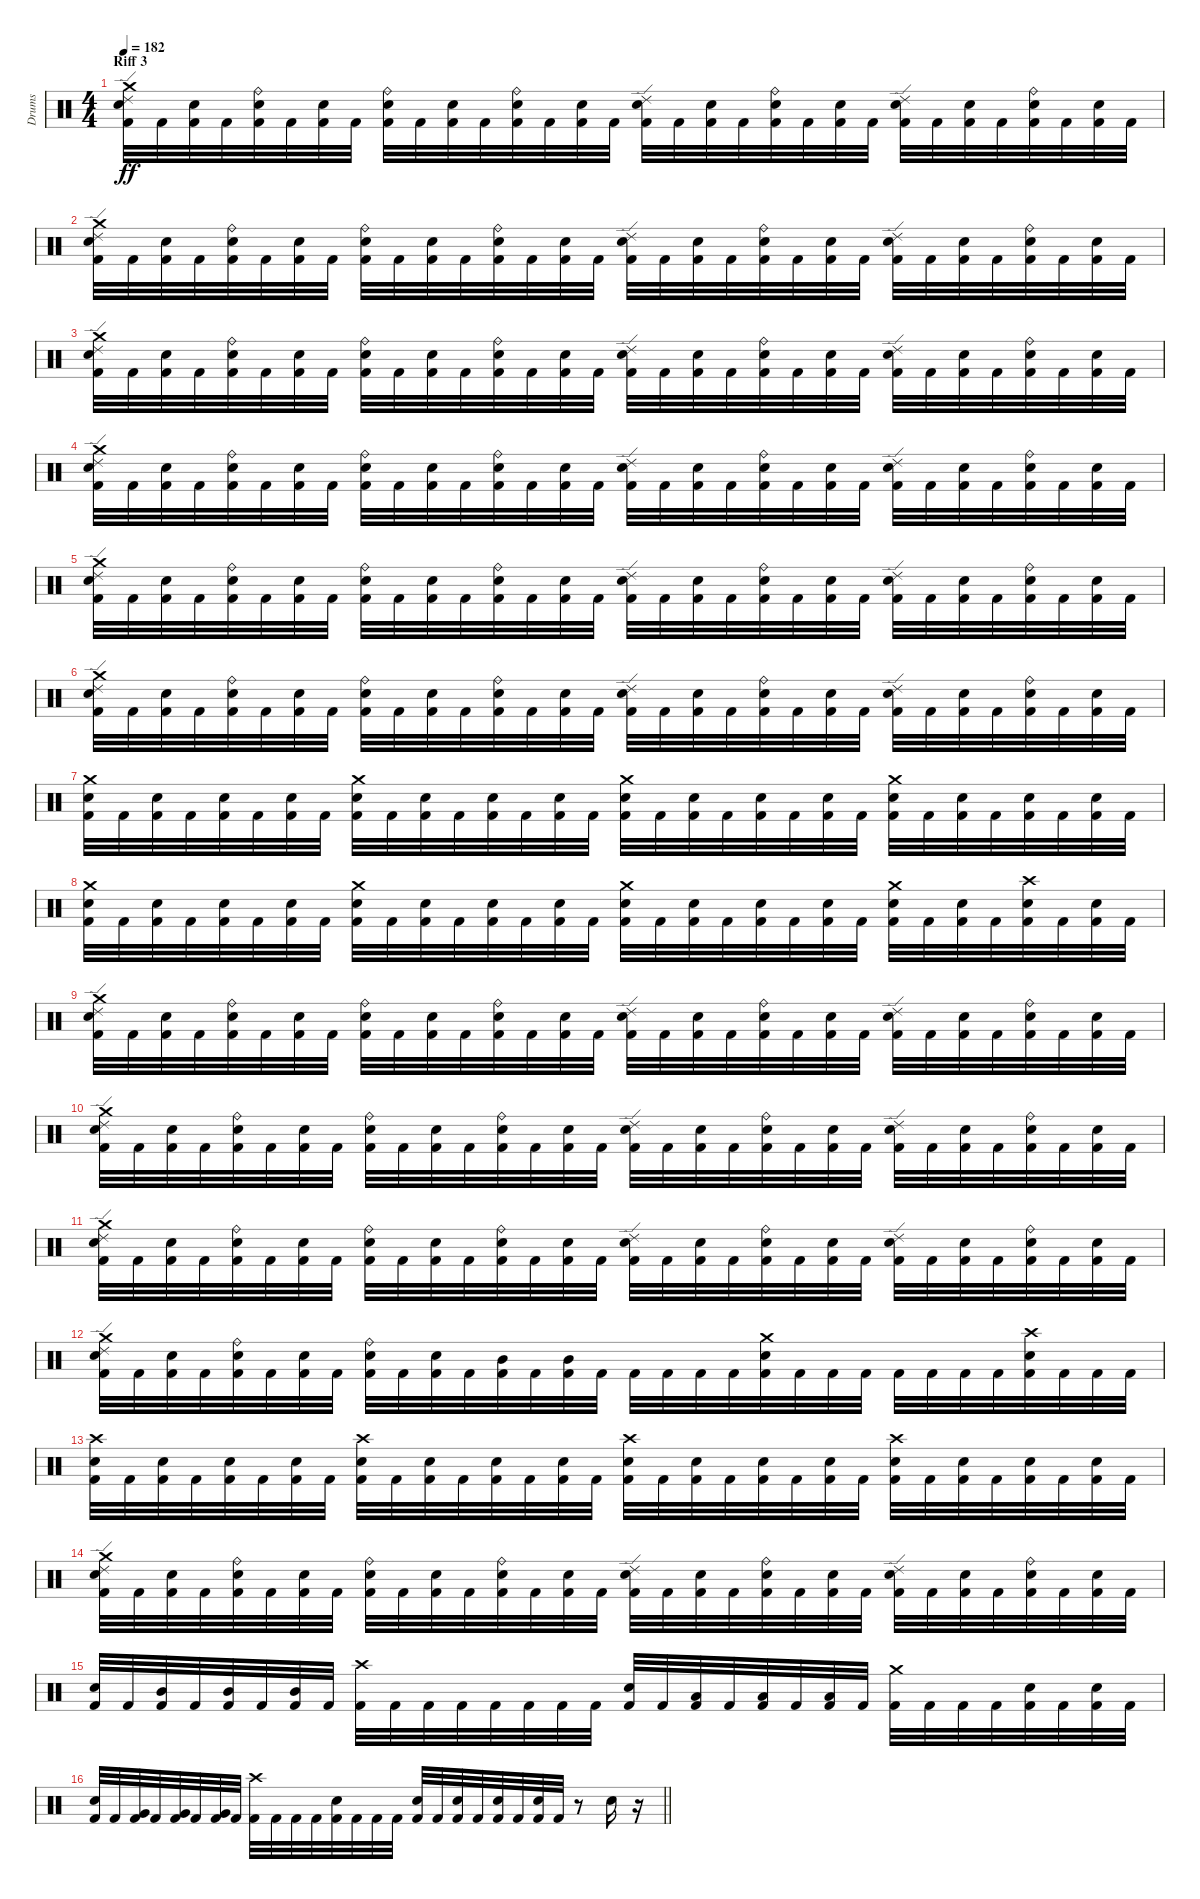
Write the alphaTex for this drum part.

\track ("Drums" "Drums") {instrument percussion}
\staff {score}
\articulation defaults
\ts (4 4)
\section ("" "Riff 3")
\tempo 182
\clef neutral
\ks c
("Kick (hit) 2" "Snare (hit) 2" "Ride (edge) 2" "Crash medium (hit)").32{dy ff} "Kick (hit) 2".32 ("Kick (hit) 2" "Snare (hit) 2").32 "Kick (hit) 2".32 ("Kick (hit) 2" "Snare (hit) 2" "Ride (bell)").32 "Kick (hit) 2".32 ("Kick (hit) 2" "Snare (hit) 2").32 "Kick (hit) 2".32 ("Kick (hit) 2" "Snare (hit) 2" "Ride (bell)").32 "Kick (hit) 2".32 ("Kick (hit) 2" "Snare (hit) 2").32 "Kick (hit) 2".32 ("Kick (hit) 2" "Snare (hit) 2" "Ride (bell)").32 "Kick (hit) 2".32 ("Kick (hit) 2" "Snare (hit) 2").32 "Kick (hit) 2".32 ("Kick (hit) 2" "Snare (hit) 2" "Ride (edge) 2").32 "Kick (hit) 2".32 ("Kick (hit) 2" "Snare (hit) 2").32 "Kick (hit) 2".32 ("Kick (hit) 2" "Snare (hit) 2" "Ride (bell)").32 "Kick (hit) 2".32 ("Kick (hit) 2" "Snare (hit) 2").32 "Kick (hit) 2".32 ("Kick (hit) 2" "Snare (hit) 2" "Ride (edge) 2").32 "Kick (hit) 2".32 ("Kick (hit) 2" "Snare (hit) 2").32 "Kick (hit) 2".32 ("Kick (hit) 2" "Snare (hit) 2" "Ride (bell)").32 "Kick (hit) 2".32 ("Kick (hit) 2" "Snare (hit) 2").32 "Kick (hit) 2".32 |
("Kick (hit) 2" "Snare (hit) 2" "Ride (edge) 2" "Crash medium (hit)").32 "Kick (hit) 2".32 ("Kick (hit) 2" "Snare (hit) 2").32 "Kick (hit) 2".32 ("Kick (hit) 2" "Snare (hit) 2" "Ride (bell)").32 "Kick (hit) 2".32 ("Kick (hit) 2" "Snare (hit) 2").32 "Kick (hit) 2".32 ("Kick (hit) 2" "Snare (hit) 2" "Ride (bell)").32 "Kick (hit) 2".32 ("Kick (hit) 2" "Snare (hit) 2").32 "Kick (hit) 2".32 ("Kick (hit) 2" "Snare (hit) 2" "Ride (bell)").32 "Kick (hit) 2".32 ("Kick (hit) 2" "Snare (hit) 2").32 "Kick (hit) 2".32 ("Kick (hit) 2" "Snare (hit) 2" "Ride (edge) 2").32 "Kick (hit) 2".32 ("Kick (hit) 2" "Snare (hit) 2").32 "Kick (hit) 2".32 ("Kick (hit) 2" "Snare (hit) 2" "Ride (bell)").32 "Kick (hit) 2".32 ("Kick (hit) 2" "Snare (hit) 2").32 "Kick (hit) 2".32 ("Kick (hit) 2" "Snare (hit) 2" "Ride (edge) 2").32 "Kick (hit) 2".32 ("Kick (hit) 2" "Snare (hit) 2").32 "Kick (hit) 2".32 ("Kick (hit) 2" "Snare (hit) 2" "Ride (bell)").32 "Kick (hit) 2".32 ("Kick (hit) 2" "Snare (hit) 2").32 "Kick (hit) 2".32 |
("Kick (hit) 2" "Snare (hit) 2" "Ride (edge) 2" "Crash medium (hit)").32 "Kick (hit) 2".32 ("Kick (hit) 2" "Snare (hit) 2").32 "Kick (hit) 2".32 ("Kick (hit) 2" "Snare (hit) 2" "Ride (bell)").32 "Kick (hit) 2".32 ("Kick (hit) 2" "Snare (hit) 2").32 "Kick (hit) 2".32 ("Kick (hit) 2" "Snare (hit) 2" "Ride (bell)").32 "Kick (hit) 2".32 ("Kick (hit) 2" "Snare (hit) 2").32 "Kick (hit) 2".32 ("Kick (hit) 2" "Snare (hit) 2" "Ride (bell)").32 "Kick (hit) 2".32 ("Kick (hit) 2" "Snare (hit) 2").32 "Kick (hit) 2".32 ("Kick (hit) 2" "Snare (hit) 2" "Ride (edge) 2").32 "Kick (hit) 2".32 ("Kick (hit) 2" "Snare (hit) 2").32 "Kick (hit) 2".32 ("Kick (hit) 2" "Snare (hit) 2" "Ride (bell)").32 "Kick (hit) 2".32 ("Kick (hit) 2" "Snare (hit) 2").32 "Kick (hit) 2".32 ("Kick (hit) 2" "Snare (hit) 2" "Ride (edge) 2").32 "Kick (hit) 2".32 ("Kick (hit) 2" "Snare (hit) 2").32 "Kick (hit) 2".32 ("Kick (hit) 2" "Snare (hit) 2" "Ride (bell)").32 "Kick (hit) 2".32 ("Kick (hit) 2" "Snare (hit) 2").32 "Kick (hit) 2".32 |
("Kick (hit) 2" "Snare (hit) 2" "Ride (edge) 2" "Crash medium (hit)").32 "Kick (hit) 2".32 ("Kick (hit) 2" "Snare (hit) 2").32 "Kick (hit) 2".32 ("Kick (hit) 2" "Snare (hit) 2" "Ride (bell)").32 "Kick (hit) 2".32 ("Kick (hit) 2" "Snare (hit) 2").32 "Kick (hit) 2".32 ("Kick (hit) 2" "Snare (hit) 2" "Ride (bell)").32 "Kick (hit) 2".32 ("Kick (hit) 2" "Snare (hit) 2").32 "Kick (hit) 2".32 ("Kick (hit) 2" "Snare (hit) 2" "Ride (bell)").32 "Kick (hit) 2".32 ("Kick (hit) 2" "Snare (hit) 2").32 "Kick (hit) 2".32 ("Kick (hit) 2" "Snare (hit) 2" "Ride (edge) 2").32 "Kick (hit) 2".32 ("Kick (hit) 2" "Snare (hit) 2").32 "Kick (hit) 2".32 ("Kick (hit) 2" "Snare (hit) 2" "Ride (bell)").32 "Kick (hit) 2".32 ("Kick (hit) 2" "Snare (hit) 2").32 "Kick (hit) 2".32 ("Kick (hit) 2" "Snare (hit) 2" "Ride (edge) 2").32 "Kick (hit) 2".32 ("Kick (hit) 2" "Snare (hit) 2").32 "Kick (hit) 2".32 ("Kick (hit) 2" "Snare (hit) 2" "Ride (bell)").32 "Kick (hit) 2".32 ("Kick (hit) 2" "Snare (hit) 2").32 "Kick (hit) 2".32 |
("Kick (hit) 2" "Snare (hit) 2" "Ride (edge) 2" "Crash medium (hit)").32 "Kick (hit) 2".32 ("Kick (hit) 2" "Snare (hit) 2").32 "Kick (hit) 2".32 ("Kick (hit) 2" "Snare (hit) 2" "Ride (bell)").32 "Kick (hit) 2".32 ("Kick (hit) 2" "Snare (hit) 2").32 "Kick (hit) 2".32 ("Kick (hit) 2" "Snare (hit) 2" "Ride (bell)").32 "Kick (hit) 2".32 ("Kick (hit) 2" "Snare (hit) 2").32 "Kick (hit) 2".32 ("Kick (hit) 2" "Snare (hit) 2" "Ride (bell)").32 "Kick (hit) 2".32 ("Kick (hit) 2" "Snare (hit) 2").32 "Kick (hit) 2".32 ("Kick (hit) 2" "Snare (hit) 2" "Ride (edge) 2").32 "Kick (hit) 2".32 ("Kick (hit) 2" "Snare (hit) 2").32 "Kick (hit) 2".32 ("Kick (hit) 2" "Snare (hit) 2" "Ride (bell)").32 "Kick (hit) 2".32 ("Kick (hit) 2" "Snare (hit) 2").32 "Kick (hit) 2".32 ("Kick (hit) 2" "Snare (hit) 2" "Ride (edge) 2").32 "Kick (hit) 2".32 ("Kick (hit) 2" "Snare (hit) 2").32 "Kick (hit) 2".32 ("Kick (hit) 2" "Snare (hit) 2" "Ride (bell)").32 "Kick (hit) 2".32 ("Kick (hit) 2" "Snare (hit) 2").32 "Kick (hit) 2".32 |
("Kick (hit) 2" "Snare (hit) 2" "Ride (edge) 2" "Crash medium (hit)").32 "Kick (hit) 2".32 ("Kick (hit) 2" "Snare (hit) 2").32 "Kick (hit) 2".32 ("Kick (hit) 2" "Snare (hit) 2" "Ride (bell)").32 "Kick (hit) 2".32 ("Kick (hit) 2" "Snare (hit) 2").32 "Kick (hit) 2".32 ("Kick (hit) 2" "Snare (hit) 2" "Ride (bell)").32 "Kick (hit) 2".32 ("Kick (hit) 2" "Snare (hit) 2").32 "Kick (hit) 2".32 ("Kick (hit) 2" "Snare (hit) 2" "Ride (bell)").32 "Kick (hit) 2".32 ("Kick (hit) 2" "Snare (hit) 2").32 "Kick (hit) 2".32 ("Kick (hit) 2" "Snare (hit) 2" "Ride (edge) 2").32 "Kick (hit) 2".32 ("Kick (hit) 2" "Snare (hit) 2").32 "Kick (hit) 2".32 ("Kick (hit) 2" "Snare (hit) 2" "Ride (bell)").32 "Kick (hit) 2".32 ("Kick (hit) 2" "Snare (hit) 2").32 "Kick (hit) 2".32 ("Kick (hit) 2" "Snare (hit) 2" "Ride (edge) 2").32 "Kick (hit) 2".32 ("Kick (hit) 2" "Snare (hit) 2").32 "Kick (hit) 2".32 ("Kick (hit) 2" "Snare (hit) 2" "Ride (bell)").32 "Kick (hit) 2".32 ("Kick (hit) 2" "Snare (hit) 2").32 "Kick (hit) 2".32 |
("Crash medium (hit)" "Kick (hit) 2" "Snare (hit) 2").32 "Kick (hit) 2".32 ("Kick (hit) 2" "Snare (hit) 2").32 "Kick (hit) 2".32 ("Kick (hit) 2" "Snare (hit) 2").32 "Kick (hit) 2".32 ("Kick (hit) 2" "Snare (hit) 2").32 "Kick (hit) 2".32 ("Crash medium (hit)" "Kick (hit) 2" "Snare (hit) 2").32 "Kick (hit) 2".32 ("Kick (hit) 2" "Snare (hit) 2").32 "Kick (hit) 2".32 ("Kick (hit) 2" "Snare (hit) 2").32 "Kick (hit) 2".32 ("Kick (hit) 2" "Snare (hit) 2").32 "Kick (hit) 2".32 ("Crash medium (hit)" "Kick (hit) 2" "Snare (hit) 2").32 "Kick (hit) 2".32 ("Kick (hit) 2" "Snare (hit) 2").32 "Kick (hit) 2".32 ("Kick (hit) 2" "Snare (hit) 2").32 "Kick (hit) 2".32 ("Kick (hit) 2" "Snare (hit) 2").32 "Kick (hit) 2".32 ("Crash medium (hit)" "Kick (hit) 2" "Snare (hit) 2").32 "Kick (hit) 2".32 ("Kick (hit) 2" "Snare (hit) 2").32 "Kick (hit) 2".32 ("Kick (hit) 2" "Snare (hit) 2").32 "Kick (hit) 2".32 ("Kick (hit) 2" "Snare (hit) 2").32 "Kick (hit) 2".32 |
("Crash medium (hit)" "Kick (hit) 2" "Snare (hit) 2").32 "Kick (hit) 2".32 ("Kick (hit) 2" "Snare (hit) 2").32 "Kick (hit) 2".32 ("Kick (hit) 2" "Snare (hit) 2").32 "Kick (hit) 2".32 ("Kick (hit) 2" "Snare (hit) 2").32 "Kick (hit) 2".32 ("Crash medium (hit)" "Kick (hit) 2" "Snare (hit) 2").32 "Kick (hit) 2".32 ("Kick (hit) 2" "Snare (hit) 2").32 "Kick (hit) 2".32 ("Kick (hit) 2" "Snare (hit) 2").32 "Kick (hit) 2".32 ("Kick (hit) 2" "Snare (hit) 2").32 "Kick (hit) 2".32 ("Crash medium (hit)" "Kick (hit) 2" "Snare (hit) 2").32 "Kick (hit) 2".32 ("Kick (hit) 2" "Snare (hit) 2").32 "Kick (hit) 2".32 ("Kick (hit) 2" "Snare (hit) 2").32 "Kick (hit) 2".32 ("Kick (hit) 2" "Snare (hit) 2").32 "Kick (hit) 2".32 ("Crash medium (hit)" "Kick (hit) 2" "Snare (hit) 2").32 "Kick (hit) 2".32 ("Kick (hit) 2" "Snare (hit) 2").32 "Kick (hit) 2".32 ("Crash high (hit)" "Kick (hit) 2" "Snare (hit) 2").32 "Kick (hit) 2".32 ("Kick (hit) 2" "Snare (hit) 2").32 "Kick (hit) 2".32 |
("Kick (hit) 2" "Snare (hit) 2" "Ride (edge) 2" "Crash medium (hit)").32 "Kick (hit) 2".32 ("Kick (hit) 2" "Snare (hit) 2").32 "Kick (hit) 2".32 ("Kick (hit) 2" "Snare (hit) 2" "Ride (bell)").32 "Kick (hit) 2".32 ("Kick (hit) 2" "Snare (hit) 2").32 "Kick (hit) 2".32 ("Kick (hit) 2" "Snare (hit) 2" "Ride (bell)").32 "Kick (hit) 2".32 ("Kick (hit) 2" "Snare (hit) 2").32 "Kick (hit) 2".32 ("Kick (hit) 2" "Snare (hit) 2" "Ride (bell)").32 "Kick (hit) 2".32 ("Kick (hit) 2" "Snare (hit) 2").32 "Kick (hit) 2".32 ("Kick (hit) 2" "Snare (hit) 2" "Ride (edge) 2").32 "Kick (hit) 2".32 ("Kick (hit) 2" "Snare (hit) 2").32 "Kick (hit) 2".32 ("Kick (hit) 2" "Snare (hit) 2" "Ride (bell)").32 "Kick (hit) 2".32 ("Kick (hit) 2" "Snare (hit) 2").32 "Kick (hit) 2".32 ("Kick (hit) 2" "Snare (hit) 2" "Ride (edge) 2").32 "Kick (hit) 2".32 ("Kick (hit) 2" "Snare (hit) 2").32 "Kick (hit) 2".32 ("Kick (hit) 2" "Snare (hit) 2" "Ride (bell)").32 "Kick (hit) 2".32 ("Kick (hit) 2" "Snare (hit) 2").32 "Kick (hit) 2".32 |
("Kick (hit) 2" "Snare (hit) 2" "Ride (edge) 2" "Crash medium (hit)").32 "Kick (hit) 2".32 ("Kick (hit) 2" "Snare (hit) 2").32 "Kick (hit) 2".32 ("Kick (hit) 2" "Snare (hit) 2" "Ride (bell)").32 "Kick (hit) 2".32 ("Kick (hit) 2" "Snare (hit) 2").32 "Kick (hit) 2".32 ("Kick (hit) 2" "Snare (hit) 2" "Ride (bell)").32 "Kick (hit) 2".32 ("Kick (hit) 2" "Snare (hit) 2").32 "Kick (hit) 2".32 ("Kick (hit) 2" "Snare (hit) 2" "Ride (bell)").32 "Kick (hit) 2".32 ("Kick (hit) 2" "Snare (hit) 2").32 "Kick (hit) 2".32 ("Kick (hit) 2" "Snare (hit) 2" "Ride (edge) 2").32 "Kick (hit) 2".32 ("Kick (hit) 2" "Snare (hit) 2").32 "Kick (hit) 2".32 ("Kick (hit) 2" "Snare (hit) 2" "Ride (bell)").32 "Kick (hit) 2".32 ("Kick (hit) 2" "Snare (hit) 2").32 "Kick (hit) 2".32 ("Kick (hit) 2" "Snare (hit) 2" "Ride (edge) 2").32 "Kick (hit) 2".32 ("Kick (hit) 2" "Snare (hit) 2").32 "Kick (hit) 2".32 ("Kick (hit) 2" "Snare (hit) 2" "Ride (bell)").32 "Kick (hit) 2".32 ("Kick (hit) 2" "Snare (hit) 2").32 "Kick (hit) 2".32 |
("Kick (hit) 2" "Snare (hit) 2" "Ride (edge) 2" "Crash medium (hit)").32 "Kick (hit) 2".32 ("Kick (hit) 2" "Snare (hit) 2").32 "Kick (hit) 2".32 ("Kick (hit) 2" "Snare (hit) 2" "Ride (bell)").32 "Kick (hit) 2".32 ("Kick (hit) 2" "Snare (hit) 2").32 "Kick (hit) 2".32 ("Kick (hit) 2" "Snare (hit) 2" "Ride (bell)").32 "Kick (hit) 2".32 ("Kick (hit) 2" "Snare (hit) 2").32 "Kick (hit) 2".32 ("Kick (hit) 2" "Snare (hit) 2" "Ride (bell)").32 "Kick (hit) 2".32 ("Kick (hit) 2" "Snare (hit) 2").32 "Kick (hit) 2".32 ("Kick (hit) 2" "Snare (hit) 2" "Ride (edge) 2").32 "Kick (hit) 2".32 ("Kick (hit) 2" "Snare (hit) 2").32 "Kick (hit) 2".32 ("Kick (hit) 2" "Snare (hit) 2" "Ride (bell)").32 "Kick (hit) 2".32 ("Kick (hit) 2" "Snare (hit) 2").32 "Kick (hit) 2".32 ("Kick (hit) 2" "Snare (hit) 2" "Ride (edge) 2").32 "Kick (hit) 2".32 ("Kick (hit) 2" "Snare (hit) 2").32 "Kick (hit) 2".32 ("Kick (hit) 2" "Snare (hit) 2" "Ride (bell)").32 "Kick (hit) 2".32 ("Kick (hit) 2" "Snare (hit) 2").32 "Kick (hit) 2".32 |
("Kick (hit) 2" "Snare (hit) 2" "Ride (edge) 2" "Crash medium (hit)").32 "Kick (hit) 2".32 ("Kick (hit) 2" "Snare (hit) 2").32 "Kick (hit) 2".32 ("Kick (hit) 2" "Snare (hit) 2" "Ride (bell)").32 "Kick (hit) 2".32 ("Kick (hit) 2" "Snare (hit) 2").32 "Kick (hit) 2".32 ("Kick (hit) 2" "Snare (hit) 2" "Ride (bell)").32 "Kick (hit) 2".32 ("Kick (hit) 2" "Snare (hit) 2").32 "Kick (hit) 2".32 ("Kick (hit) 2" "Mid Tom (hit)").32 "Kick (hit) 2".32 ("Kick (hit) 2" "Mid Tom (hit)").32 "Kick (hit) 2".32 "Kick (hit) 2".32 "Kick (hit) 2".32 "Kick (hit) 2".32 "Kick (hit) 2".32 ("Crash medium (hit)" "Kick (hit) 2" "Snare (hit) 2").32 "Kick (hit) 2".32 "Kick (hit) 2".32 "Kick (hit) 2".32 "Kick (hit) 2".32 "Kick (hit) 2".32 "Kick (hit) 2".32 "Kick (hit) 2".32 ("Crash high (hit)" "Kick (hit) 2" "Snare (hit) 2").32 "Kick (hit) 2".32 "Kick (hit) 2".32 "Kick (hit) 2".32 |
("Crash high (hit)" "Kick (hit) 2" "Snare (hit) 2").32 "Kick (hit) 2".32 ("Kick (hit) 2" "Snare (hit) 2").32 "Kick (hit) 2".32 ("Kick (hit) 2" "Snare (hit) 2").32 "Kick (hit) 2".32 ("Kick (hit) 2" "Snare (hit) 2").32 "Kick (hit) 2".32 ("Crash high (hit)" "Kick (hit) 2" "Snare (hit) 2").32 "Kick (hit) 2".32 ("Kick (hit) 2" "Snare (hit) 2").32 "Kick (hit) 2".32 ("Kick (hit) 2" "Snare (hit) 2").32 "Kick (hit) 2".32 ("Kick (hit) 2" "Snare (hit) 2").32 "Kick (hit) 2".32 ("Crash high (hit)" "Kick (hit) 2" "Snare (hit) 2").32 "Kick (hit) 2".32 ("Kick (hit) 2" "Snare (hit) 2").32 "Kick (hit) 2".32 ("Kick (hit) 2" "Snare (hit) 2").32 "Kick (hit) 2".32 ("Kick (hit) 2" "Snare (hit) 2").32 "Kick (hit) 2".32 ("Crash high (hit)" "Kick (hit) 2" "Snare (hit) 2").32 "Kick (hit) 2".32 ("Kick (hit) 2" "Snare (hit) 2").32 "Kick (hit) 2".32 ("Kick (hit) 2" "Snare (hit) 2").32 "Kick (hit) 2".32 ("Kick (hit) 2" "Snare (hit) 2").32 "Kick (hit) 2".32 |
("Kick (hit) 2" "Snare (hit) 2" "Ride (edge) 2" "Crash medium (hit)").32 "Kick (hit) 2".32 ("Kick (hit) 2" "Snare (hit) 2").32 "Kick (hit) 2".32 ("Kick (hit) 2" "Snare (hit) 2" "Ride (bell)").32 "Kick (hit) 2".32 ("Kick (hit) 2" "Snare (hit) 2").32 "Kick (hit) 2".32 ("Kick (hit) 2" "Snare (hit) 2" "Ride (bell)").32 "Kick (hit) 2".32 ("Kick (hit) 2" "Snare (hit) 2").32 "Kick (hit) 2".32 ("Kick (hit) 2" "Snare (hit) 2" "Ride (bell)").32 "Kick (hit) 2".32 ("Kick (hit) 2" "Snare (hit) 2").32 "Kick (hit) 2".32 ("Kick (hit) 2" "Snare (hit) 2" "Ride (edge) 2").32 "Kick (hit) 2".32 ("Kick (hit) 2" "Snare (hit) 2").32 "Kick (hit) 2".32 ("Kick (hit) 2" "Snare (hit) 2" "Ride (bell)").32 "Kick (hit) 2".32 ("Kick (hit) 2" "Snare (hit) 2").32 "Kick (hit) 2".32 ("Kick (hit) 2" "Snare (hit) 2" "Ride (edge) 2").32 "Kick (hit) 2".32 ("Kick (hit) 2" "Snare (hit) 2").32 "Kick (hit) 2".32 ("Kick (hit) 2" "Snare (hit) 2" "Ride (bell)").32 "Kick (hit) 2".32 ("Kick (hit) 2" "Snare (hit) 2").32 "Kick (hit) 2".32 |
("Kick (hit) 2" "Snare (hit) 2").32 "Kick (hit) 2".32 ("Kick (hit) 2" "Mid Tom (hit)").32 "Kick (hit) 2".32 ("Kick (hit) 2" "Mid Tom (hit)").32 "Kick (hit) 2".32 ("Kick (hit) 2" "Mid Tom (hit)").32 "Kick (hit) 2".32 ("Crash high (hit)" "Kick (hit) 2").32 "Kick (hit) 2".32 "Kick (hit) 2".32 "Kick (hit) 2".32 "Kick (hit) 2".32 "Kick (hit) 2".32 "Kick (hit) 2".32 "Kick (hit) 2".32 ("Kick (hit) 2" "Snare (hit) 2").32 "Kick (hit) 2".32 ("Kick (hit) 2" "Low Tom (hit)").32 "Kick (hit) 2".32 ("Kick (hit) 2" "Low Tom (hit)").32 "Kick (hit) 2".32 ("Kick (hit) 2" "Low Tom (hit)").32 "Kick (hit) 2".32 ("Crash medium (hit)" "Kick (hit) 2").32 "Kick (hit) 2".32 "Kick (hit) 2".32 "Kick (hit) 2".32 ("Kick (hit) 2" "Snare (hit) 2").32 "Kick (hit) 2".32 ("Kick (hit) 2" "Snare (hit) 2").32 "Kick (hit) 2".32 |
\barLineRight lightlight
("Kick (hit) 2" "Snare (hit) 2").32 "Kick (hit) 2".32 ("Kick (hit) 2" "Very Low Tom (hit)").32 "Kick (hit) 2".32 ("Kick (hit) 2" "Very Low Tom (hit)").32 "Kick (hit) 2".32 ("Kick (hit) 2" "Very Low Tom (hit)").32 "Kick (hit) 2".32 ("Crash high (hit)" "Kick (hit) 2").32 "Kick (hit) 2".32 "Kick (hit) 2".32 "Kick (hit) 2".32 ("Kick (hit) 2" "Snare (hit) 2").32 "Kick (hit) 2".32 "Kick (hit) 2".32 "Kick (hit) 2".32 ("Kick (hit) 2" "Snare (hit) 2").32 "Kick (hit) 2".32 ("Kick (hit) 2" "Snare (hit) 2").32 "Kick (hit) 2".32 ("Kick (hit) 2" "Snare (hit) 2").32 "Kick (hit) 2".32 ("Kick (hit) 2" "Snare (hit) 2").32 "Kick (hit) 2".32 r.8 "Snare (hit) 2".16 r.16
